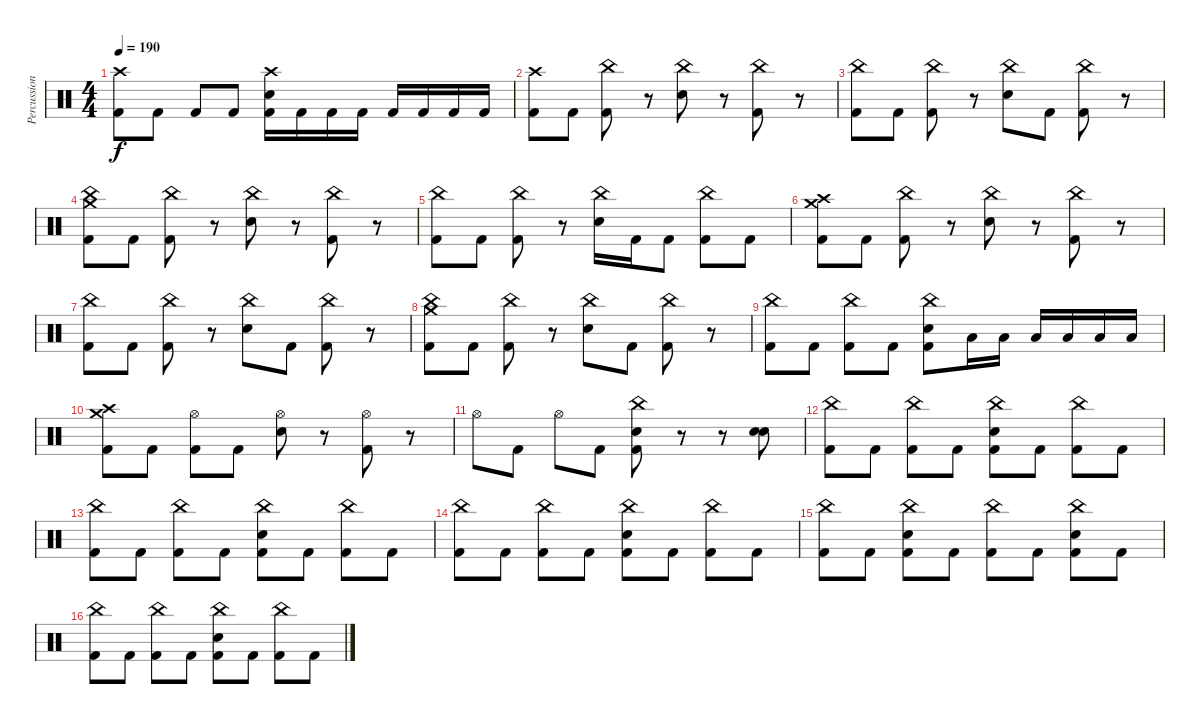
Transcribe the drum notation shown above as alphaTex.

\track ("Percussion" "Percussion") {instrument percussion}
\staff {score}
\articulation defaults
\ts (4 4)
\tempo 190
\clef neutral
\ks c
("Crash high (hit)" "Kick (hit) 2").8{dy f} "Kick (hit) 2".8 "Kick (hit) 2".8 "Kick (hit) 2".8 ("Crash high (hit)" "Electric Snare (hit)" "Kick (hit) 2").16 "Kick (hit) 2".16 "Kick (hit) 2".16 "Kick (hit) 2".16 "Kick (hit) 2".16 "Kick (hit) 2".16 "Kick (hit) 2".16 "Kick (hit) 2".16 |
("Crash high (hit)" "Kick (hit) 2").8 "Kick (hit) 2".8 ("China (hit)" "Kick (hit) 2").8 r.8 ("China (hit)" "Electric Snare (hit)").8 r.8 ("China (hit)" "Kick (hit) 2").8 r.8 |
("China (hit)" "Kick (hit) 2").8 "Kick (hit) 2".8 ("China (hit)" "Kick (hit) 2").8 r.8 ("China (hit)" "Electric Snare (hit)").8 "Kick (hit) 2".8 ("China (hit)" "Kick (hit) 2").8 r.8 |
("China (hit)" "Crash medium (hit)" "Kick (hit) 2").8 "Kick (hit) 2".8 ("China (hit)" "Kick (hit) 2").8 r.8 ("China (hit)" "Electric Snare (hit)").8 r.8 ("China (hit)" "Kick (hit) 2").8 r.8 |
("China (hit)" "Kick (hit) 2").8 "Kick (hit) 2".8 ("China (hit)" "Kick (hit) 2").8 r.8 ("China (hit)" "Electric Snare (hit)").16 "Kick (hit) 2".16 "Kick (hit) 2".8 ("China (hit)" "Kick (hit) 2").8 "Kick (hit) 2".8 |
("Crash high (hit)" "Crash medium (hit)" "Kick (hit) 2").8 "Kick (hit) 2".8 ("China (hit)" "Kick (hit) 2").8 r.8 ("China (hit)" "Electric Snare (hit)").8 r.8 ("China (hit)" "Kick (hit) 2").8 r.8 |
("China (hit)" "Kick (hit) 2").8 "Kick (hit) 2".8 ("China (hit)" "Kick (hit) 2").8 r.8 ("China (hit)" "Electric Snare (hit)").8 "Kick (hit) 2".8 ("China (hit)" "Kick (hit) 2").8 r.8 |
("China (hit)" "Crash medium (hit)" "Kick (hit) 2").8 "Kick (hit) 2".8 ("China (hit)" "Kick (hit) 2").8 r.8 ("China (hit)" "Electric Snare (hit)").8 "Kick (hit) 2".8 ("China (hit)" "Kick (hit) 2").8 r.8 |
("China (hit)" "Kick (hit) 2").8 "Kick (hit) 2".8 ("China (hit)" "Kick (hit) 2").8 "Kick (hit) 2".8 ("China (hit)" "Electric Snare (hit)" "Kick (hit) 2").8 "Low Tom (hit)".16 "Low Tom (hit)".16 "Low Tom (hit)".16 "Low Floor Tom (hit)".16 "Low Floor Tom (hit)".16 "Low Floor Tom (hit)".16 |
("Crash high (hit)" "Crash medium (hit)" "Kick (hit) 2").8 "Kick (hit) 2".8 ("Hi-Hat (open)" "Kick (hit) 2").8 "Kick (hit) 2".8 ("Hi-Hat (open)" "Electric Snare (hit)").8 r.8 ("Hi-Hat (open)" "Kick (hit) 2").8 r.8 |
"Hi-Hat (open)".8 "Kick (hit) 2".8 "Hi-Hat (open)".8 "Kick (hit) 2".8 ("China (hit)" "Electric Snare (hit)" "Kick (hit) 2").8 r.8 r.8 ("Electric Snare (hit)" "Snare (hit) 2").8 |
("China (hit)" "Kick (hit) 2").8 "Kick (hit) 2".8 ("China (hit)" "Kick (hit) 2").8 "Kick (hit) 2".8 ("China (hit)" "Electric Snare (hit)" "Kick (hit) 2").8 "Kick (hit) 2".8 ("China (hit)" "Kick (hit) 2").8 "Kick (hit) 2".8 |
("China (hit)" "Kick (hit) 2").8 "Kick (hit) 2".8 ("China (hit)" "Kick (hit) 2").8 "Kick (hit) 2".8 ("China (hit)" "Electric Snare (hit)" "Kick (hit) 2").8 "Kick (hit) 2".8 ("China (hit)" "Kick (hit) 2").8 "Kick (hit) 2".8 |
("China (hit)" "Kick (hit) 2").8 "Kick (hit) 2".8 ("China (hit)" "Kick (hit) 2").8 "Kick (hit) 2".8 ("China (hit)" "Electric Snare (hit)" "Kick (hit) 2").8 "Kick (hit) 2".8 ("China (hit)" "Kick (hit) 2").8 "Kick (hit) 2".8 |
("China (hit)" "Kick (hit) 2").8 "Kick (hit) 2".8 ("China (hit)" "Electric Snare (hit)" "Kick (hit) 2").8 "Kick (hit) 2".8 ("China (hit)" "Kick (hit) 2").8 "Kick (hit) 2".8 ("China (hit)" "Electric Snare (hit)" "Kick (hit) 2").8 "Kick (hit) 2".8 |
("China (hit)" "Kick (hit) 2").8 "Kick (hit) 2".8 ("China (hit)" "Kick (hit) 2").8 "Kick (hit) 2".8 ("China (hit)" "Electric Snare (hit)" "Kick (hit) 2").8 "Kick (hit) 2".8 ("China (hit)" "Kick (hit) 2").8 "Kick (hit) 2".8
